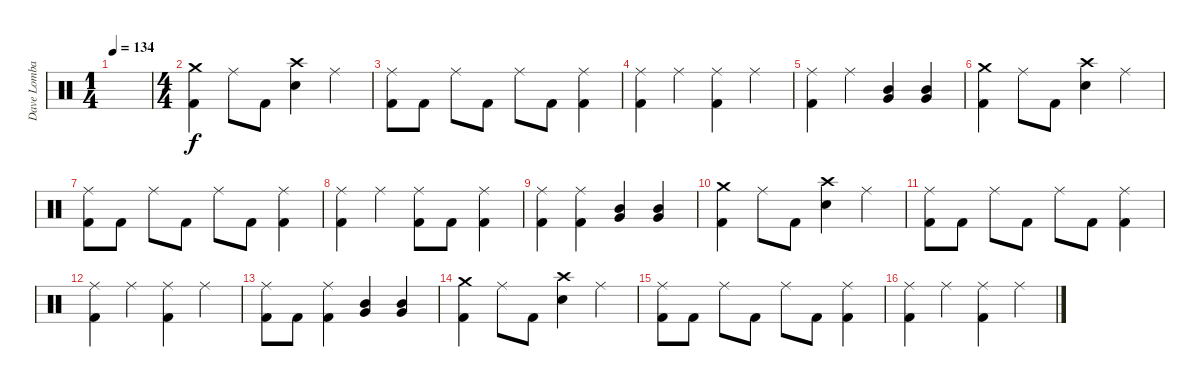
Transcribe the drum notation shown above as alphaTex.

\track ("Dave Lombardo (Drums)" "Dave Lomba") {instrument percussion}
\staff {score}
\articulation defaults
\ts (1 4)
\tempo 134
\clef neutral
\ks c
|
\ts (4 4)
("Crash medium (hit)" "Kick (hit) 2").4 "Ride (middle)".8 "Kick (hit) 2".8 ("Crash high (hit)" "Electric Snare (hit)").4 "Ride (middle)".4 |
("Ride (middle)" "Kick (hit) 2").8 "Kick (hit) 2".8 "Ride (middle)".8 "Kick (hit) 2".8 "Ride (middle)".8 "Kick (hit) 2".8 ("Ride (middle)" "Kick (hit) 2").4 |
("Ride (middle)" "Kick (hit) 2").4 "Ride (middle)".4 ("Ride (middle)" "Kick (hit) 2").4 "Ride (middle)".4 |
("Ride (middle)" "Kick (hit) 2").4 "Ride (middle)".4 ("Mid Tom (hit)" "Very Low Tom (hit)").4{bd 120} ("Mid Tom (hit)" "Very Low Tom (hit)").4{bd 120} |
("Crash medium (hit)" "Kick (hit) 2").4 "Ride (middle)".8 "Kick (hit) 2".8 ("Crash high (hit)" "Electric Snare (hit)").4 "Ride (middle)".4 |
("Ride (middle)" "Kick (hit) 2").8 "Kick (hit) 2".8 "Ride (middle)".8 "Kick (hit) 2".8 "Ride (middle)".8 "Kick (hit) 2".8 ("Ride (middle)" "Kick (hit) 2").4 |
("Ride (middle)" "Kick (hit) 2").4 "Ride (middle)".4 ("Ride (middle)" "Kick (hit) 2").8 "Kick (hit) 2".8 ("Ride (middle)" "Kick (hit) 2").4 |
("Ride (middle)" "Kick (hit) 2").4 ("Ride (middle)" "Kick (hit) 2").4 ("Mid Tom (hit)" "Very Low Tom (hit)").4{bd 120} ("Mid Tom (hit)" "Very Low Tom (hit)").4{bd 120} |
("Crash medium (hit)" "Kick (hit) 2").4 "Ride (middle)".8 "Kick (hit) 2".8 ("Crash high (hit)" "Electric Snare (hit)").4 "Ride (middle)".4 |
("Ride (middle)" "Kick (hit) 2").8 "Kick (hit) 2".8 "Ride (middle)".8 "Kick (hit) 2".8 "Ride (middle)".8 "Kick (hit) 2".8 ("Ride (middle)" "Kick (hit) 2").4 |
("Ride (middle)" "Kick (hit) 2").4 "Ride (middle)".4 ("Ride (middle)" "Kick (hit) 2").4 "Ride (middle)".4 |
("Ride (middle)" "Kick (hit) 2").8 "Kick (hit) 2".8 ("Ride (middle)" "Kick (hit) 2").4 ("Mid Tom (hit)" "Very Low Tom (hit)").4{bd 120} ("Mid Tom (hit)" "Very Low Tom (hit)").4{bd 120} |
("Crash medium (hit)" "Kick (hit) 2").4 "Ride (middle)".8 "Kick (hit) 2".8 ("Crash high (hit)" "Electric Snare (hit)").4 "Ride (middle)".4 |
("Ride (middle)" "Kick (hit) 2").8 "Kick (hit) 2".8 "Ride (middle)".8 "Kick (hit) 2".8 "Ride (middle)".8 "Kick (hit) 2".8 ("Ride (middle)" "Kick (hit) 2").4 |
("Ride (middle)" "Kick (hit) 2").4 "Ride (middle)".4 ("Ride (middle)" "Kick (hit) 2").4 "Ride (middle)".4
